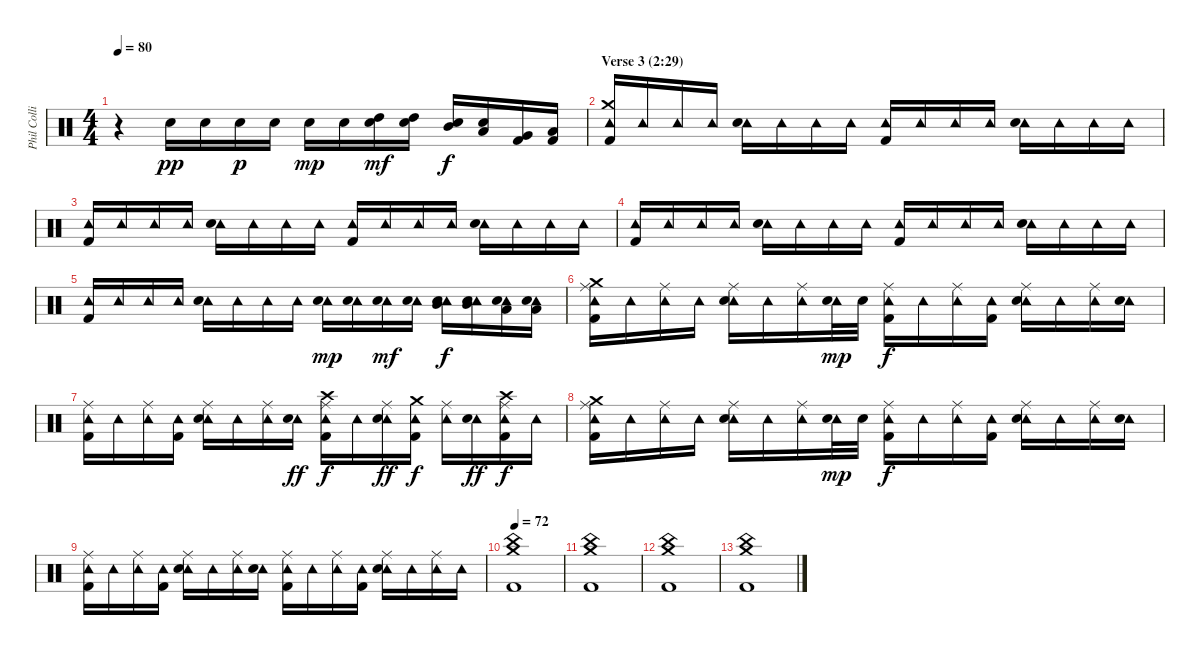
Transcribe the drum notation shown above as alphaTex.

\track ("Phil Collins (drums)" "Phil Colli") {instrument percussion}
\staff {score}
\articulation defaults
\ts (4 4)
\tempo 80
\clef neutral
\ks c
r.4{dy f} "Electric Snare (hit)".16{dy pp} "Electric Snare (hit)".16 "Electric Snare (hit)".16{dy p} "Electric Snare (hit)".16 "Electric Snare (hit)".16{dy mp} "Electric Snare (hit)".16 ("High Tom (hit)" "Electric Snare (hit)").16{dy mf} ("High Tom (hit)" "Electric Snare (hit)").16 ("Mid Tom (hit)" "Electric Snare (hit)").16{dy f} ("Low Tom (hit)" "Electric Snare (hit)").16 ("Very Low Tom (hit)" "Kick (hit) 2").16 ("Low Floor Tom (hit)" "Kick (hit) 2").16 |
\section ("" "Verse 3 (2:29)")
("Crash medium (hit)" "Tambourine (hit)" "Kick (hit) 2").16 "Tambourine (hit)".16 "Tambourine (hit)".16 "Tambourine (hit)".16 ("Tambourine (hit)" "Electric Snare (hit)").16 "Tambourine (hit)".16 "Tambourine (hit)".16 "Tambourine (hit)".16 ("Tambourine (hit)" "Kick (hit) 2").16 "Tambourine (hit)".16 "Tambourine (hit)".16 "Tambourine (hit)".16 ("Tambourine (hit)" "Electric Snare (hit)").16 "Tambourine (hit)".16 "Tambourine (hit)".16 "Tambourine (hit)".16 |
("Tambourine (hit)" "Kick (hit) 2").16 "Tambourine (hit)".16 "Tambourine (hit)".16 "Tambourine (hit)".16 ("Tambourine (hit)" "Electric Snare (hit)").16 "Tambourine (hit)".16 "Tambourine (hit)".16 "Tambourine (hit)".16 ("Tambourine (hit)" "Kick (hit) 2").16 "Tambourine (hit)".16 "Tambourine (hit)".16 "Tambourine (hit)".16 ("Tambourine (hit)" "Electric Snare (hit)").16 "Tambourine (hit)".16 "Tambourine (hit)".16 "Tambourine (hit)".16 |
("Tambourine (hit)" "Kick (hit) 2").16 "Tambourine (hit)".16 "Tambourine (hit)".16 "Tambourine (hit)".16 ("Tambourine (hit)" "Electric Snare (hit)").16 "Tambourine (hit)".16 "Tambourine (hit)".16 "Tambourine (hit)".16 ("Tambourine (hit)" "Kick (hit) 2").16 "Tambourine (hit)".16 "Tambourine (hit)".16 "Tambourine (hit)".16 ("Tambourine (hit)" "Electric Snare (hit)").16 "Tambourine (hit)".16 "Tambourine (hit)".16 "Tambourine (hit)".16 |
("Tambourine (hit)" "Kick (hit) 2").16 "Tambourine (hit)".16 "Tambourine (hit)".16 "Tambourine (hit)".16 ("Tambourine (hit)" "Electric Snare (hit)").16 "Tambourine (hit)".16 "Tambourine (hit)".16 "Tambourine (hit)".16 ("Tambourine (hit)" "Electric Snare (hit)").16{dy mp} ("Tambourine (hit)" "Electric Snare (hit)").16 ("Tambourine (hit)" "Electric Snare (hit)").16{dy mf} ("Tambourine (hit)" "Electric Snare (hit)").16 ("Mid Tom (hit)" "Tambourine (hit)" "Electric Snare (hit)").16{dy f} ("Mid Tom (hit)" "Tambourine (hit)" "Electric Snare (hit)").16 ("Low Tom (hit)" "Tambourine (hit)" "Electric Snare (hit)").16 ("Low Tom (hit)" "Tambourine (hit)" "Electric Snare (hit)").16 |
("Crash medium (hit)" "Ride (middle)" "Tambourine (hit)" "Kick (hit) 2").16 "Tambourine (hit)".16 ("Ride (middle)" "Tambourine (hit)").16 "Tambourine (hit)".16 ("Ride (middle)" "Tambourine (hit)" "Electric Snare (hit)").16 "Tambourine (hit)".16 ("Ride (middle)" "Tambourine (hit)").16 ("Tambourine (hit)" "Electric Snare (hit)").32{dy mp} "Electric Snare (hit)".32 ("Ride (middle)" "Tambourine (hit)" "Kick (hit) 2").16{dy f} "Tambourine (hit)".16 ("Ride (middle)" "Tambourine (hit)").16 ("Tambourine (hit)" "Kick (hit) 2").16 ("Ride (middle)" "Tambourine (hit)" "Electric Snare (hit)").16 "Tambourine (hit)".16 ("Ride (middle)" "Tambourine (hit)").16 ("Tambourine (hit)" "Electric Snare (hit)").16 |
("Ride (middle)" "Tambourine (hit)" "Kick (hit) 2").16 "Tambourine (hit)".16 ("Ride (middle)" "Tambourine (hit)").16 ("Tambourine (hit)" "Kick (hit) 2").16 ("Ride (middle)" "Tambourine (hit)" "Electric Snare (hit)").16 "Tambourine (hit)".16 ("Ride (middle)" "Tambourine (hit)").16 ("Tambourine (hit)" "Electric Snare (hit)").16{dy ff} ("Crash high (hit)" "Ride (middle)" "Tambourine (hit)" "Kick (hit) 2").16{dy f} "Tambourine (hit)".16 ("Ride (middle)" "Tambourine (hit)" "Electric Snare (hit)").16{dy ff} ("Crash medium (hit)" "Tambourine (hit)" "Kick (hit) 2").16{dy f} ("Ride (middle)" "Tambourine (hit)").16 ("Tambourine (hit)" "Electric Snare (hit)").16{dy ff} ("Crash high (hit)" "Ride (middle)" "Tambourine (hit)" "Kick (hit) 2").16{dy f} "Tambourine (hit)".16 |
("Crash medium (hit)" "Ride (middle)" "Tambourine (hit)" "Kick (hit) 2").16 "Tambourine (hit)".16 ("Ride (middle)" "Tambourine (hit)").16 "Tambourine (hit)".16 ("Ride (middle)" "Tambourine (hit)" "Electric Snare (hit)").16 "Tambourine (hit)".16 ("Ride (middle)" "Tambourine (hit)").16 ("Tambourine (hit)" "Electric Snare (hit)").32{dy mp} "Electric Snare (hit)".32 ("Ride (middle)" "Tambourine (hit)" "Kick (hit) 2").16{dy f} "Tambourine (hit)".16 ("Ride (middle)" "Tambourine (hit)").16 ("Tambourine (hit)" "Kick (hit) 2").16 ("Ride (middle)" "Tambourine (hit)" "Electric Snare (hit)").16 "Tambourine (hit)".16 ("Ride (middle)" "Tambourine (hit)").16 ("Tambourine (hit)" "Electric Snare (hit)").16 |
("Ride (middle)" "Tambourine (hit)" "Kick (hit) 2").16 "Tambourine (hit)".16 ("Ride (middle)" "Tambourine (hit)").16 ("Tambourine (hit)" "Kick (hit) 2").16 ("Ride (middle)" "Tambourine (hit)" "Electric Snare (hit)").16 "Tambourine (hit)".16 ("Ride (middle)" "Tambourine (hit)").16 ("Tambourine (hit)" "Electric Snare (hit)").16 ("Ride (middle)" "Tambourine (hit)" "Kick (hit) 2").16 "Tambourine (hit)".16 ("Ride (middle)" "Tambourine (hit)").16 ("Tambourine (hit)" "Kick (hit) 2").16 ("Ride (middle)" "Tambourine (hit)" "Electric Snare (hit)").16 "Tambourine (hit)".16 ("Ride (middle)" "Tambourine (hit)").16 "Tambourine (hit)".16 |
\tempo 72
("China (hit)" "Crash medium (hit)" "Kick (hit) 2").1 |
("China (hit)" "Crash medium (hit)" "Kick (hit) 2").1 |
("China (hit)" "Crash medium (hit)" "Kick (hit) 2").1 |
("China (hit)" "Crash medium (hit)" "Kick (hit) 2").1
